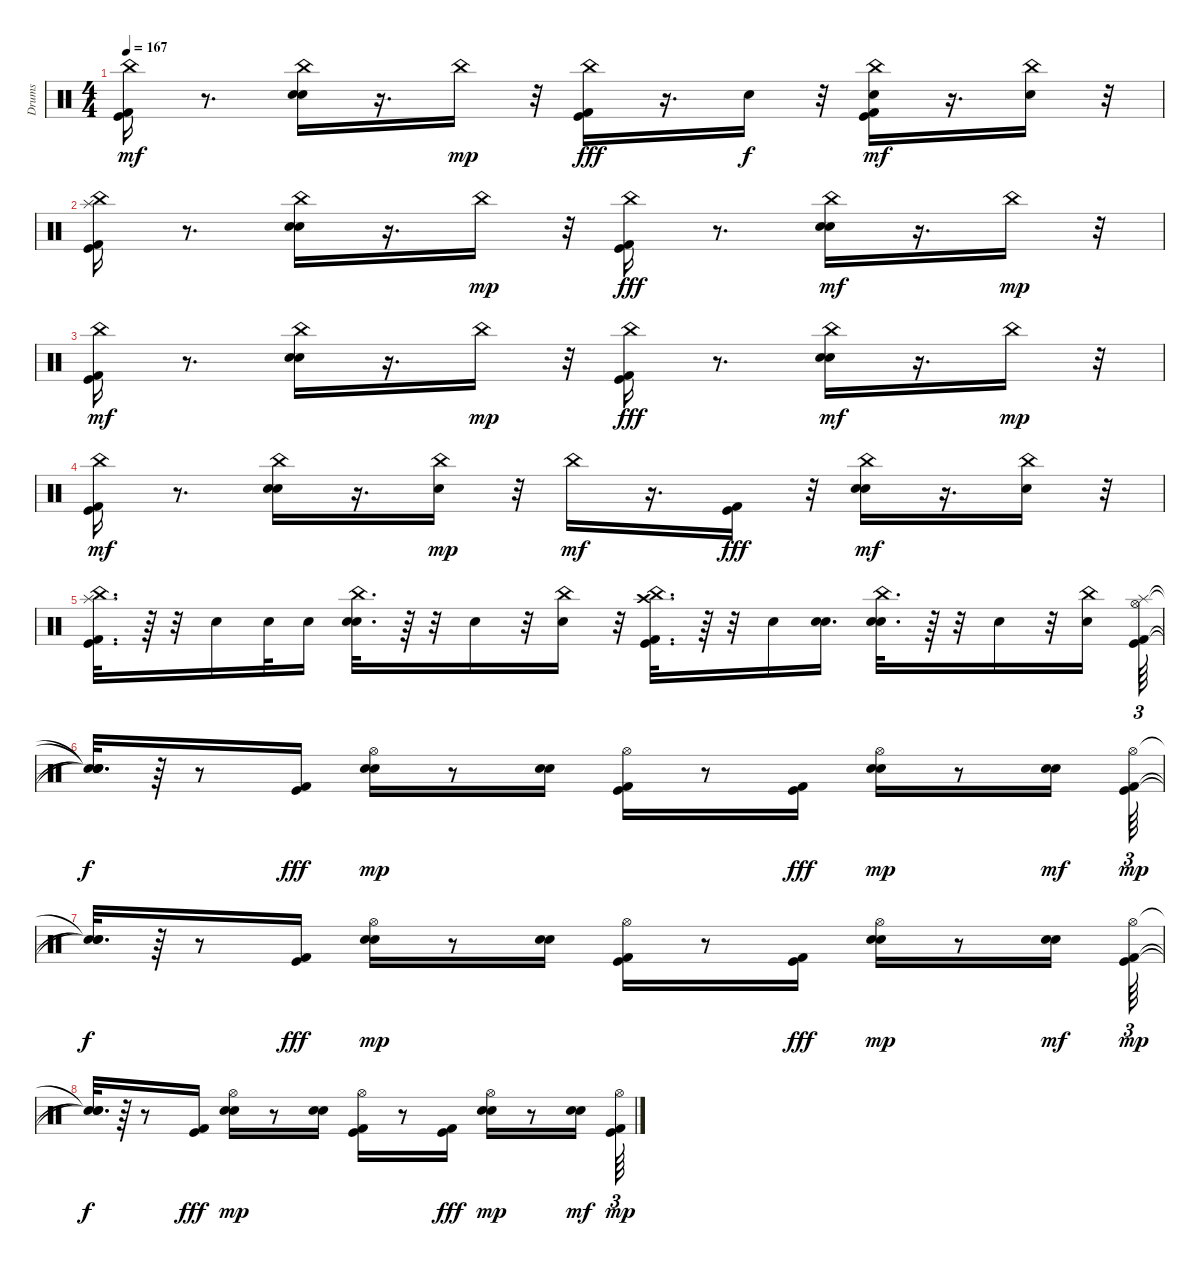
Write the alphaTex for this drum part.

\track ("Drums" "Drums") {instrument percussion}
\staff {score}
\articulation defaults
\ts (4 4)
\tempo 167
\clef neutral
\ks c
("Kick (hit) 2" "Kick (hit)" "China (hit)").16{dy mf} r.8{d} ("Snare (hit) 2" "China (hit)" "Hand Clap (hit)").16 r.16{d} "China (hit)".16{dy mp} r.32 ("China (hit)" "Kick (hit) 2" "Kick (hit)").16{dy fff} r.16{d} "Snare (hit) 2".16{dy f} r.32 ("China (hit)" "Kick (hit) 2" "Kick (hit)" "Hand Clap (hit)").16{dy mf} r.16{d} ("China (hit)" "Snare (hit) 2").16 r.32 |
("Kick (hit) 2" "Kick (hit)" "Splash (hit)" "China (hit)").16 r.8{d} ("Snare (hit) 2" "China (hit)" "Hand Clap (hit)").16 r.16{d} "China (hit)".16{dy mp} r.32 ("China (hit)" "Kick (hit) 2" "Kick (hit)").16{dy fff} r.8{d} ("Snare (hit) 2" "China (hit)" "Hand Clap (hit)").16{dy mf} r.16{d} "China (hit)".16{dy mp} r.32 |
("Kick (hit) 2" "Kick (hit)" "China (hit)").16{dy mf} r.8{d} ("Snare (hit) 2" "China (hit)" "Hand Clap (hit)").16 r.16{d} "China (hit)".16{dy mp} r.32 ("China (hit)" "Kick (hit) 2" "Kick (hit)").16{dy fff} r.8{d} ("Snare (hit) 2" "China (hit)" "Hand Clap (hit)").16{dy mf} r.16{d} "China (hit)".16{dy mp} r.32 |
("Kick (hit) 2" "Kick (hit)" "China (hit)").16{dy mf} r.8{d} ("Snare (hit) 2" "China (hit)" "Hand Clap (hit)").16 r.16{d} ("China (hit)" "Snare (hit) 2").16{dy mp} r.32 "China (hit)".16{dy mf} r.16{d} ("Kick (hit) 2" "Kick (hit)").16{dy fff} r.32 ("Snare (hit) 2" "China (hit)" "Hand Clap (hit)").16{dy mf} r.16{d} ("China (hit)" "Snare (hit) 2").16 r.32 |
("Kick (hit) 2" "Kick (hit)" "China (hit)" "Splash (hit)").32{d} r.64 r.32 "Snare (hit) 2".16 "Snare (hit) 2".32 "Snare (hit) 2".16 ("Snare (hit) 2" "China (hit)" "Hand Clap (hit)").32{d} r.64 r.32 "Snare (hit) 2".16 r.32 ("China (hit)" "Snare (hit) 2").16 r.32 ("China (hit)" "Kick (hit) 2" "Kick (hit)" "Crash high (hit)").32{d} r.64 r.32 "Snare (hit) 2".16 ("Snare (hit) 2" "Snare (hit) 2").16{d} ("China (hit)" "Hand Clap (hit)" "Snare (hit) 2").32{d} r.64 r.32 "Snare (hit) 2".16 r.32 ("China (hit)" "Snare (hit) 2").16 ("Kick (hit) 2" "Kick (hit)" "Hi-Hat (open)" "Splash (hit)").64{tu (3 2)} |
("Snare (hit)"{t} "Snare (hit)"{t} "Snare (hit)"{t} "Snare (hit)"{t}).32{d dy f} r.64 r.8 ("Kick (hit) 2" "Kick (hit)").16{dy fff} ("Snare (hit) 2" "Hand Clap (hit)" "Hi-Hat (open)").16{dy mp} r.8 ("Snare (hit) 2" "Hand Clap (hit)").16 ("Kick (hit) 2" "Kick (hit)" "Hi-Hat (open)").16 r.8 ("Kick (hit) 2" "Kick (hit)").16{dy fff} ("Snare (hit) 2" "Hand Clap (hit)" "Hi-Hat (open)").16{dy mp} r.8 ("Snare (hit) 2" "Hand Clap (hit)").16{dy mf} ("Kick (hit) 2" "Kick (hit)" "Hi-Hat (open)").64{tu (3 2) dy mp} |
("Snare (hit)"{t} "Snare (hit)"{t} "Snare (hit)"{t}).32{d dy f} r.64 r.8 ("Kick (hit) 2" "Kick (hit)").16{dy fff} ("Snare (hit) 2" "Hand Clap (hit)" "Hi-Hat (open)").16{dy mp} r.8 ("Snare (hit) 2" "Hand Clap (hit)").16 ("Kick (hit) 2" "Kick (hit)" "Hi-Hat (open)").16 r.8 ("Kick (hit) 2" "Kick (hit)").16{dy fff} ("Snare (hit) 2" "Hand Clap (hit)" "Hi-Hat (open)").16{dy mp} r.8 ("Snare (hit) 2" "Hand Clap (hit)").16{dy mf} ("Kick (hit) 2" "Kick (hit)" "Hi-Hat (open)").64{tu (3 2) dy mp} |
("Snare (hit)"{t} "Snare (hit)"{t} "Snare (hit)"{t}).32{d dy f} r.64 r.8 ("Kick (hit) 2" "Kick (hit)").16{dy fff} ("Snare (hit) 2" "Hand Clap (hit)" "Hi-Hat (open)").16{dy mp} r.8 ("Snare (hit) 2" "Hand Clap (hit)").16 ("Kick (hit) 2" "Kick (hit)" "Hi-Hat (open)").16 r.8 ("Kick (hit) 2" "Kick (hit)").16{dy fff} ("Snare (hit) 2" "Hand Clap (hit)" "Hi-Hat (open)").16{dy mp} r.8 ("Snare (hit) 2" "Hand Clap (hit)").16{dy mf} ("Kick (hit) 2" "Kick (hit)" "Hi-Hat (open)").64{tu (3 2) dy mp}
